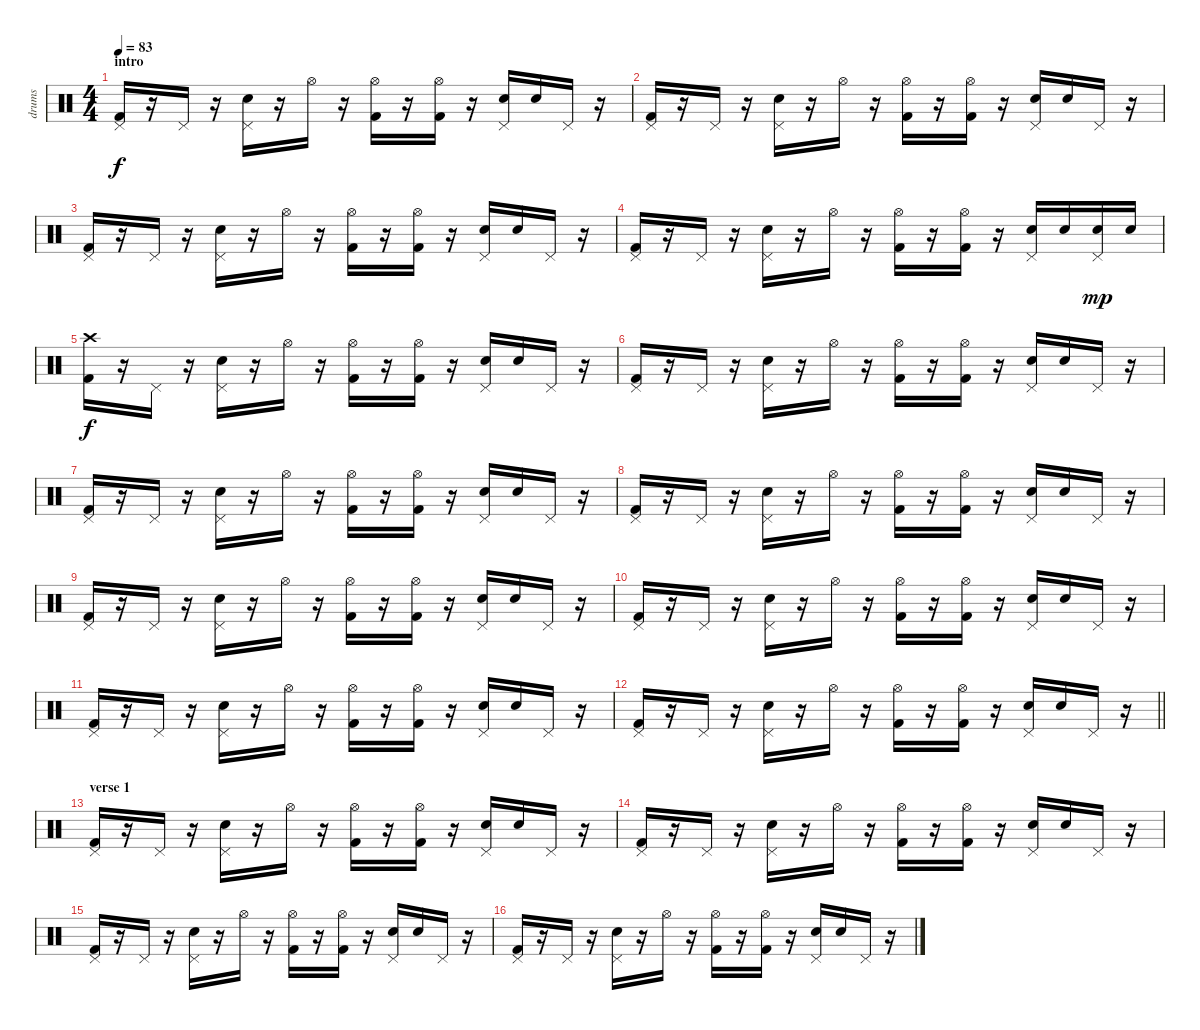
\track ("drums" "drums") {instrument percussion}
\staff {score}
\articulation defaults
\ts (4 4)
\section ("" "intro")
\tempo 83
\clef neutral
\ks c
("Kick (hit) 2" "Pedal Hi-Hat (hit)").16{dy f} r.16 "Pedal Hi-Hat (hit)".16 r.16 ("Electric Snare (hit)" "Pedal Hi-Hat (hit)").16 r.16 "Hi-Hat (open)".16 r.16 ("Kick (hit) 2" "Hi-Hat (open)").16 r.16 ("Kick (hit) 2" "Hi-Hat (open)").16 r.16 ("Electric Snare (hit)" "Pedal Hi-Hat (hit)").16 "Electric Snare (hit)".16 "Pedal Hi-Hat (hit)".16 r.16 |
("Kick (hit) 2" "Pedal Hi-Hat (hit)").16 r.16 "Pedal Hi-Hat (hit)".16 r.16 ("Electric Snare (hit)" "Pedal Hi-Hat (hit)").16 r.16 "Hi-Hat (open)".16 r.16 ("Kick (hit) 2" "Hi-Hat (open)").16 r.16 ("Kick (hit) 2" "Hi-Hat (open)").16 r.16 ("Electric Snare (hit)" "Pedal Hi-Hat (hit)").16 "Electric Snare (hit)".16 "Pedal Hi-Hat (hit)".16 r.16 |
("Kick (hit) 2" "Pedal Hi-Hat (hit)").16 r.16 "Pedal Hi-Hat (hit)".16 r.16 ("Electric Snare (hit)" "Pedal Hi-Hat (hit)").16 r.16 "Hi-Hat (open)".16 r.16 ("Kick (hit) 2" "Hi-Hat (open)").16 r.16 ("Kick (hit) 2" "Hi-Hat (open)").16 r.16 ("Electric Snare (hit)" "Pedal Hi-Hat (hit)").16 "Electric Snare (hit)".16 "Pedal Hi-Hat (hit)".16 r.16 |
("Kick (hit) 2" "Pedal Hi-Hat (hit)").16 r.16 "Pedal Hi-Hat (hit)".16 r.16 ("Electric Snare (hit)" "Pedal Hi-Hat (hit)").16 r.16 "Hi-Hat (open)".16 r.16 ("Kick (hit) 2" "Hi-Hat (open)").16 r.16 ("Kick (hit) 2" "Hi-Hat (open)").16 r.16 ("Electric Snare (hit)" "Pedal Hi-Hat (hit)").16 "Electric Snare (hit)".16 ("Electric Snare (hit)" "Pedal Hi-Hat (hit)").16{dy mp} "Electric Snare (hit)".16 |
("Kick (hit) 2" "Crash high (hit)").16{dy f} r.16 "Pedal Hi-Hat (hit)".16 r.16 ("Electric Snare (hit)" "Pedal Hi-Hat (hit)").16 r.16 "Hi-Hat (open)".16 r.16 ("Kick (hit) 2" "Hi-Hat (open)").16 r.16 ("Kick (hit) 2" "Hi-Hat (open)").16 r.16 ("Electric Snare (hit)" "Pedal Hi-Hat (hit)").16 "Electric Snare (hit)".16 "Pedal Hi-Hat (hit)".16 r.16 |
("Kick (hit) 2" "Pedal Hi-Hat (hit)").16 r.16 "Pedal Hi-Hat (hit)".16 r.16 ("Electric Snare (hit)" "Pedal Hi-Hat (hit)").16 r.16 "Hi-Hat (open)".16 r.16 ("Kick (hit) 2" "Hi-Hat (open)").16 r.16 ("Kick (hit) 2" "Hi-Hat (open)").16 r.16 ("Electric Snare (hit)" "Pedal Hi-Hat (hit)").16 "Electric Snare (hit)".16 "Pedal Hi-Hat (hit)".16 r.16 |
("Kick (hit) 2" "Pedal Hi-Hat (hit)").16 r.16 "Pedal Hi-Hat (hit)".16 r.16 ("Electric Snare (hit)" "Pedal Hi-Hat (hit)").16 r.16 "Hi-Hat (open)".16 r.16 ("Kick (hit) 2" "Hi-Hat (open)").16 r.16 ("Kick (hit) 2" "Hi-Hat (open)").16 r.16 ("Electric Snare (hit)" "Pedal Hi-Hat (hit)").16 "Electric Snare (hit)".16 "Pedal Hi-Hat (hit)".16 r.16 |
("Kick (hit) 2" "Pedal Hi-Hat (hit)").16 r.16 "Pedal Hi-Hat (hit)".16 r.16 ("Electric Snare (hit)" "Pedal Hi-Hat (hit)").16 r.16 "Hi-Hat (open)".16 r.16 ("Kick (hit) 2" "Hi-Hat (open)").16 r.16 ("Kick (hit) 2" "Hi-Hat (open)").16 r.16 ("Electric Snare (hit)" "Pedal Hi-Hat (hit)").16 "Electric Snare (hit)".16 "Pedal Hi-Hat (hit)".16 r.16 |
("Kick (hit) 2" "Pedal Hi-Hat (hit)").16 r.16 "Pedal Hi-Hat (hit)".16 r.16 ("Electric Snare (hit)" "Pedal Hi-Hat (hit)").16 r.16 "Hi-Hat (open)".16 r.16 ("Kick (hit) 2" "Hi-Hat (open)").16 r.16 ("Kick (hit) 2" "Hi-Hat (open)").16 r.16 ("Electric Snare (hit)" "Pedal Hi-Hat (hit)").16 "Electric Snare (hit)".16 "Pedal Hi-Hat (hit)".16 r.16 |
("Kick (hit) 2" "Pedal Hi-Hat (hit)").16 r.16 "Pedal Hi-Hat (hit)".16 r.16 ("Electric Snare (hit)" "Pedal Hi-Hat (hit)").16 r.16 "Hi-Hat (open)".16 r.16 ("Kick (hit) 2" "Hi-Hat (open)").16 r.16 ("Kick (hit) 2" "Hi-Hat (open)").16 r.16 ("Electric Snare (hit)" "Pedal Hi-Hat (hit)").16 "Electric Snare (hit)".16 "Pedal Hi-Hat (hit)".16 r.16 |
("Kick (hit) 2" "Pedal Hi-Hat (hit)").16 r.16 "Pedal Hi-Hat (hit)".16 r.16 ("Electric Snare (hit)" "Pedal Hi-Hat (hit)").16 r.16 "Hi-Hat (open)".16 r.16 ("Kick (hit) 2" "Hi-Hat (open)").16 r.16 ("Kick (hit) 2" "Hi-Hat (open)").16 r.16 ("Electric Snare (hit)" "Pedal Hi-Hat (hit)").16 "Electric Snare (hit)".16 "Pedal Hi-Hat (hit)".16 r.16 |
\barLineRight lightlight
("Kick (hit) 2" "Pedal Hi-Hat (hit)").16 r.16 "Pedal Hi-Hat (hit)".16 r.16 ("Electric Snare (hit)" "Pedal Hi-Hat (hit)").16 r.16 "Hi-Hat (open)".16 r.16 ("Kick (hit) 2" "Hi-Hat (open)").16 r.16 ("Kick (hit) 2" "Hi-Hat (open)").16 r.16 ("Electric Snare (hit)" "Pedal Hi-Hat (hit)").16 "Electric Snare (hit)".16 "Pedal Hi-Hat (hit)".16 r.16 |
\section ("" "verse 1")
("Kick (hit) 2" "Pedal Hi-Hat (hit)").16 r.16 "Pedal Hi-Hat (hit)".16 r.16 ("Electric Snare (hit)" "Pedal Hi-Hat (hit)").16 r.16 "Hi-Hat (open)".16 r.16 ("Kick (hit) 2" "Hi-Hat (open)").16 r.16 ("Kick (hit) 2" "Hi-Hat (open)").16 r.16 ("Electric Snare (hit)" "Pedal Hi-Hat (hit)").16 "Electric Snare (hit)".16 "Pedal Hi-Hat (hit)".16 r.16 |
("Kick (hit) 2" "Pedal Hi-Hat (hit)").16 r.16 "Pedal Hi-Hat (hit)".16 r.16 ("Electric Snare (hit)" "Pedal Hi-Hat (hit)").16 r.16 "Hi-Hat (open)".16 r.16 ("Kick (hit) 2" "Hi-Hat (open)").16 r.16 ("Kick (hit) 2" "Hi-Hat (open)").16 r.16 ("Electric Snare (hit)" "Pedal Hi-Hat (hit)").16 "Electric Snare (hit)".16 "Pedal Hi-Hat (hit)".16 r.16 |
("Kick (hit) 2" "Pedal Hi-Hat (hit)").16 r.16 "Pedal Hi-Hat (hit)".16 r.16 ("Electric Snare (hit)" "Pedal Hi-Hat (hit)").16 r.16 "Hi-Hat (open)".16 r.16 ("Kick (hit) 2" "Hi-Hat (open)").16 r.16 ("Kick (hit) 2" "Hi-Hat (open)").16 r.16 ("Electric Snare (hit)" "Pedal Hi-Hat (hit)").16 "Electric Snare (hit)".16 "Pedal Hi-Hat (hit)".16 r.16 |
("Kick (hit) 2" "Pedal Hi-Hat (hit)").16 r.16 "Pedal Hi-Hat (hit)".16 r.16 ("Electric Snare (hit)" "Pedal Hi-Hat (hit)").16 r.16 "Hi-Hat (open)".16 r.16 ("Kick (hit) 2" "Hi-Hat (open)").16 r.16 ("Kick (hit) 2" "Hi-Hat (open)").16 r.16 ("Electric Snare (hit)" "Pedal Hi-Hat (hit)").16 "Electric Snare (hit)".16 "Pedal Hi-Hat (hit)".16 r.16
